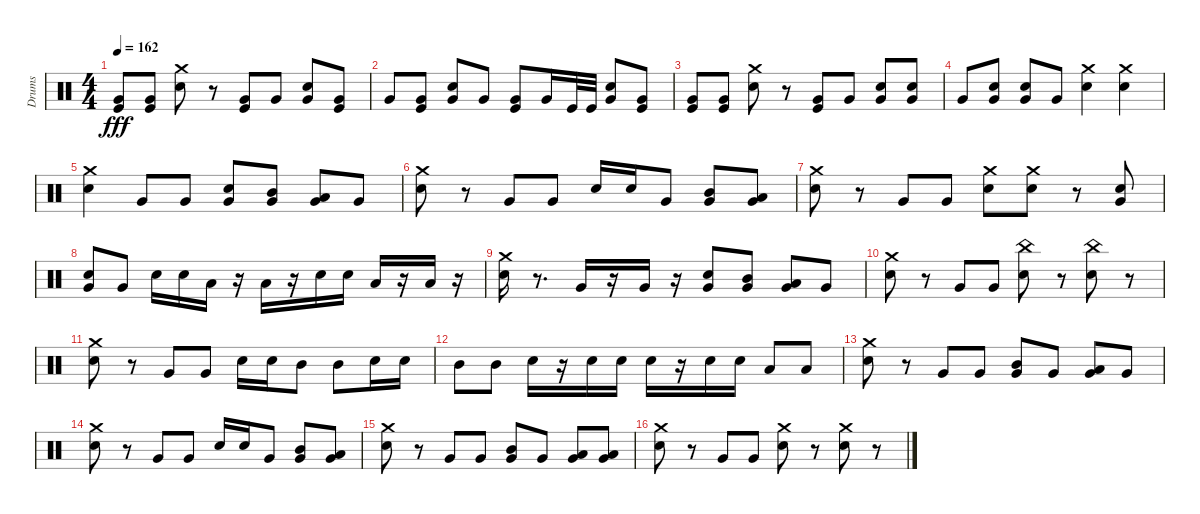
\track ("Drums" "Drums") {instrument percussion}
\staff {score}
\articulation defaults
\ts (4 4)
\tempo 162
\clef neutral
\ks c
("Very Low Tom (hit)" "Kick (hit)").8{dy fff} ("Kick (hit)" "Very Low Tom (hit)").8 ("Crash medium (hit)" "Snare (hit) 2").8 r.8 ("Kick (hit)" "Very Low Tom (hit)").8 "Very Low Tom (hit)".8 ("Snare (hit) 2" "Very Low Tom (hit)").8 ("Kick (hit)" "Very Low Tom (hit)").8 |
"Very Low Tom (hit)".8 ("Kick (hit)" "Very Low Tom (hit)").8 ("Snare (hit) 2" "Very Low Tom (hit)").8 "Very Low Tom (hit)".8 ("Kick (hit)" "Very Low Tom (hit)").8 "Very Low Tom (hit)".16 "Kick (hit)".32 "Kick (hit)".32 ("Snare (hit) 2" "Very Low Tom (hit)").8 ("Kick (hit)" "Very Low Tom (hit)").8 |
("Very Low Tom (hit)" "Kick (hit)").8 ("Kick (hit)" "Very Low Tom (hit)").8 ("Crash medium (hit)" "Snare (hit) 2").8 r.8 ("Kick (hit)" "Very Low Tom (hit)").8 "Very Low Tom (hit)".8 ("Snare (hit) 2" "Very Low Tom (hit)").8 ("Snare (hit) 2" "Very Low Tom (hit)").8 |
"Very Low Tom (hit)".8 ("Snare (hit) 2" "Very Low Tom (hit)").8 ("Snare (hit) 2" "Very Low Tom (hit)").8 "Very Low Tom (hit)".8 ("Crash medium (hit)" "Snare (hit) 2").4 ("Crash medium (hit)" "Snare (hit) 2").4 |
("Crash medium (hit)" "Snare (hit) 2").4 "Very Low Tom (hit)".8 "Very Low Tom (hit)".8 ("Snare (hit) 2" "Very Low Tom (hit)").8 ("Mid Tom (hit)" "Very Low Tom (hit)").8 ("Low Tom (hit)" "Very Low Tom (hit)").8 "Very Low Tom (hit)".8 |
("Crash medium (hit)" "Snare (hit) 2").8 r.8 "Very Low Tom (hit)".8 "Very Low Tom (hit)".8 "Snare (hit) 2".16 "Snare (hit) 2".16 "Very Low Tom (hit)".8 ("Mid Tom (hit)" "Very Low Tom (hit)").8 ("Low Tom (hit)" "Very Low Tom (hit)").8 |
("Crash medium (hit)" "Snare (hit) 2").8 r.8 "Very Low Tom (hit)".8 "Very Low Tom (hit)".8 ("Crash medium (hit)" "Snare (hit) 2").8 ("Snare (hit) 2" "Crash medium (hit)").8 r.8 ("Snare (hit) 2" "Very Low Tom (hit)").8 |
("Very Low Tom (hit)" "Snare (hit) 2").8 "Very Low Tom (hit)".8 "Snare (hit) 2".16 "Snare (hit) 2".16 "Low Tom (hit)".16 r.16 "Low Tom (hit)".16 r.16 "Snare (hit) 2".16 "Snare (hit) 2".16 "Low Tom (hit)".16 r.16 "Low Tom (hit)".16 r.16 |
("Crash medium (hit)" "Snare (hit) 2").16 r.8{d} "Very Low Tom (hit)".16 r.16 "Very Low Tom (hit)".16 r.16 ("Snare (hit) 2" "Very Low Tom (hit)").8 ("Mid Tom (hit)" "Very Low Tom (hit)").8 ("Low Tom (hit)" "Very Low Tom (hit)").8 "Very Low Tom (hit)".8 |
("Crash medium (hit)" "Snare (hit) 2").8 r.8 "Very Low Tom (hit)".8 "Very Low Tom (hit)".8 ("China (hit)" "Snare (hit) 2").8 r.8 ("Snare (hit) 2" "China (hit)").8 r.8 |
("Crash medium (hit)" "Snare (hit) 2").8 r.8 "Very Low Tom (hit)".8 "Very Low Tom (hit)".8 "Snare (hit) 2".16 "Snare (hit) 2".16 "Mid Tom (hit)".8 "Mid Tom (hit)".8 "Snare (hit) 2".16 "Snare (hit) 2".16 |
"Mid Tom (hit)".8 "Mid Tom (hit)".8 "Snare (hit) 2".16 r.16 "Snare (hit) 2".16 "Snare (hit) 2".16 "Snare (hit) 2".16 r.16 "Snare (hit) 2".16 "Snare (hit) 2".16 "Low Tom (hit)".8 "Low Tom (hit)".8 |
("Crash medium (hit)" "Snare (hit) 2").8 r.8 "Very Low Tom (hit)".8 "Very Low Tom (hit)".8 ("Mid Tom (hit)" "Very Low Tom (hit)").8 "Very Low Tom (hit)".8 ("Low Tom (hit)" "Very Low Tom (hit)").8 "Very Low Tom (hit)".8 |
("Crash medium (hit)" "Snare (hit) 2").8 r.8 "Very Low Tom (hit)".8 "Very Low Tom (hit)".8 "Snare (hit) 2".16 "Snare (hit) 2".16 "Very Low Tom (hit)".8 ("Mid Tom (hit)" "Very Low Tom (hit)").8 ("Low Tom (hit)" "Very Low Tom (hit)").8 |
("Crash medium (hit)" "Snare (hit) 2").8 r.8 "Very Low Tom (hit)".8 "Very Low Tom (hit)".8 ("Mid Tom (hit)" "Very Low Tom (hit)").8 "Very Low Tom (hit)".8 ("Low Tom (hit)" "Very Low Tom (hit)").8 ("Low Tom (hit)" "Very Low Tom (hit)").8 |
("Crash medium (hit)" "Snare (hit) 2").8 r.8 "Very Low Tom (hit)".8 "Very Low Tom (hit)".8 ("Crash medium (hit)" "Snare (hit) 2").8 r.8 ("Crash medium (hit)" "Snare (hit) 2").8 r.8
